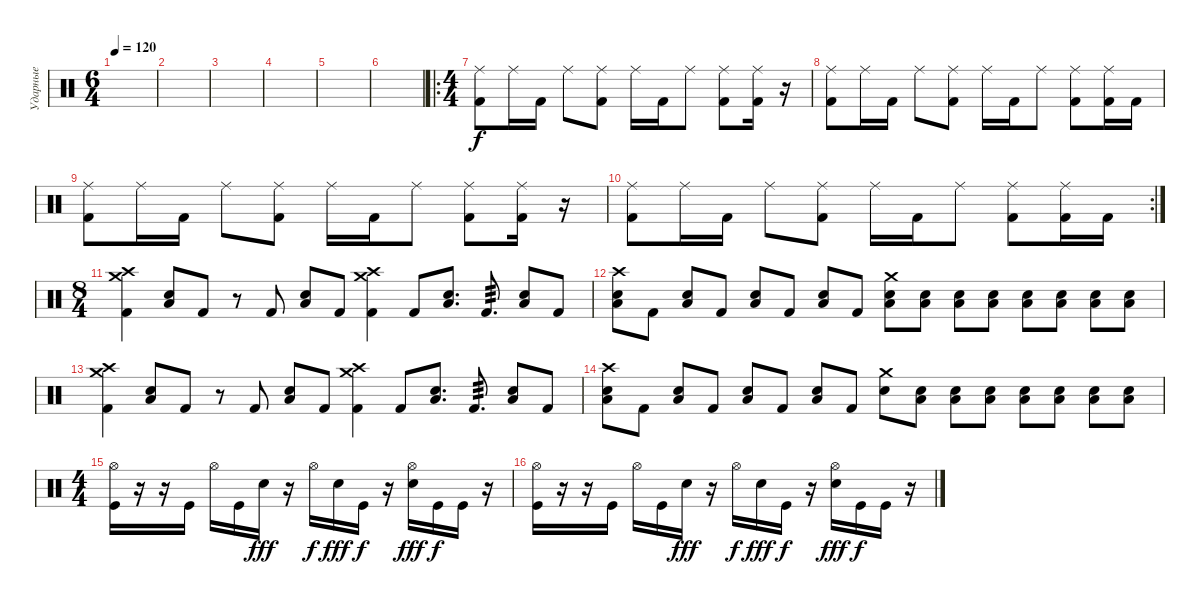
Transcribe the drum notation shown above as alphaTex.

\track ("Ударные" "Ударные") {instrument percussion}
\staff {score}
\articulation defaults
\ts (6 4)
\tempo 120
\clef neutral
\ks c
|
|
|
|
|
|
\ro
\ts (4 4)
("Ride (middle)" "Kick (hit) 2").8 "Ride (middle)".16 "Kick (hit) 2".16 "Ride (middle)".8 ("Ride (middle)" "Kick (hit) 2").8 "Ride (middle)".16 "Kick (hit) 2".16 "Ride (middle)".8 ("Ride (middle)" "Kick (hit) 2").8 ("Ride (middle)" "Kick (hit) 2").16 r.16 |
("Ride (middle)" "Kick (hit) 2").8 "Ride (middle)".16 "Kick (hit) 2".16 "Ride (middle)".8 ("Ride (middle)" "Kick (hit) 2").8 "Ride (middle)".16 "Kick (hit) 2".16 "Ride (middle)".8 ("Ride (middle)" "Kick (hit) 2").8 ("Ride (middle)" "Kick (hit) 2").16 "Kick (hit) 2".16 |
("Ride (middle)" "Kick (hit) 2").8 "Ride (middle)".16 "Kick (hit) 2".16 "Ride (middle)".8 ("Ride (middle)" "Kick (hit) 2").8 "Ride (middle)".16 "Kick (hit) 2".16 "Ride (middle)".8 ("Ride (middle)" "Kick (hit) 2").8 ("Ride (middle)" "Kick (hit) 2").16 r.16 |
\rc 2
("Ride (middle)" "Kick (hit) 2").8 "Ride (middle)".16 "Kick (hit) 2".16 "Ride (middle)".8 ("Ride (middle)" "Kick (hit) 2").8 "Ride (middle)".16 "Kick (hit) 2".16 "Ride (middle)".8 ("Ride (middle)" "Kick (hit) 2").8 ("Ride (middle)" "Kick (hit) 2").16 "Kick (hit) 2".16 |
\ts (8 4)
("Crash medium (hit)" "Crash high (hit)" "Kick (hit) 2").4 ("Low Tom (hit)" "Electric Snare (hit)").8 "Kick (hit) 2".8 r.8 "Kick (hit) 2".8 ("Low Tom (hit)" "Electric Snare (hit)").8 "Kick (hit) 2".8 ("Crash medium (hit)" "Crash high (hit)" "Kick (hit) 2").4 "Kick (hit) 2".8 ("Low Tom (hit)" "Electric Snare (hit)").8{d} "Kick (hit) 2".8{d tp 3} ("Low Tom (hit)" "Electric Snare (hit)").8 "Kick (hit) 2".8 |
("Crash high (hit)" "Low Tom (hit)" "Electric Snare (hit)").8 "Kick (hit) 2".8 ("Low Tom (hit)" "Electric Snare (hit)").8 "Kick (hit) 2".8 ("Low Tom (hit)" "Electric Snare (hit)").8 "Kick (hit) 2".8 ("Low Tom (hit)" "Electric Snare (hit)").8 "Kick (hit) 2".8 ("Crash medium (hit)" "Low Tom (hit)" "Electric Snare (hit)").8 ("Low Tom (hit)" "Electric Snare (hit)").8 ("Low Tom (hit)" "Electric Snare (hit)").8 ("Low Tom (hit)" "Electric Snare (hit)").8 ("Low Tom (hit)" "Electric Snare (hit)").8 ("Low Tom (hit)" "Electric Snare (hit)").8 ("Low Tom (hit)" "Electric Snare (hit)").8 ("Low Tom (hit)" "Electric Snare (hit)").8 |
("Crash medium (hit)" "Crash high (hit)" "Kick (hit) 2").4 ("Low Tom (hit)" "Electric Snare (hit)").8 "Kick (hit) 2".8 r.8 "Kick (hit) 2".8 ("Low Tom (hit)" "Electric Snare (hit)").8 "Kick (hit) 2".8 ("Crash medium (hit)" "Crash high (hit)" "Kick (hit) 2").4 "Kick (hit) 2".8 ("Low Tom (hit)" "Electric Snare (hit)").8{d} "Kick (hit) 2".8{d tp 3} ("Low Tom (hit)" "Electric Snare (hit)").8 "Kick (hit) 2".8 |
("Crash high (hit)" "Low Tom (hit)" "Electric Snare (hit)").8 "Kick (hit) 2".8 ("Low Tom (hit)" "Electric Snare (hit)").8 "Kick (hit) 2".8 ("Low Tom (hit)" "Electric Snare (hit)").8 "Kick (hit) 2".8 ("Low Tom (hit)" "Electric Snare (hit)").8 "Kick (hit) 2".8 ("Crash medium (hit)" "Electric Snare (hit)").8 ("Low Tom (hit)" "Electric Snare (hit)").8 ("Low Tom (hit)" "Electric Snare (hit)").8 ("Low Tom (hit)" "Electric Snare (hit)").8 ("Low Tom (hit)" "Electric Snare (hit)").8 ("Low Tom (hit)" "Electric Snare (hit)").8 ("Low Tom (hit)" "Electric Snare (hit)").8 ("Low Tom (hit)" "Electric Snare (hit)").8 |
\ts (4 4)
("Hi-Hat (open)" "Kick (hit)").16 r.16 r.16 "Kick (hit)".16 "Hi-Hat (open)".16 "Kick (hit)".16 "Electric Snare (hit)".16{dy fff} r.16 "Hi-Hat (open)".16{dy f} "Electric Snare (hit)".16{dy fff} "Kick (hit)".16{dy f} r.16 ("Hi-Hat (open)" "Electric Snare (hit)").16{dy fff} "Kick (hit)".16{dy f} "Kick (hit)".16 r.16 |
("Hi-Hat (open)" "Kick (hit)").16 r.16 r.16 "Kick (hit)".16 "Hi-Hat (open)".16 "Kick (hit)".16 "Electric Snare (hit)".16{dy fff} r.16 "Hi-Hat (open)".16{dy f} "Electric Snare (hit)".16{dy fff} "Kick (hit)".16{dy f} r.16 ("Hi-Hat (open)" "Electric Snare (hit)").16{dy fff} "Kick (hit)".16{dy f} "Kick (hit)".16 r.16
